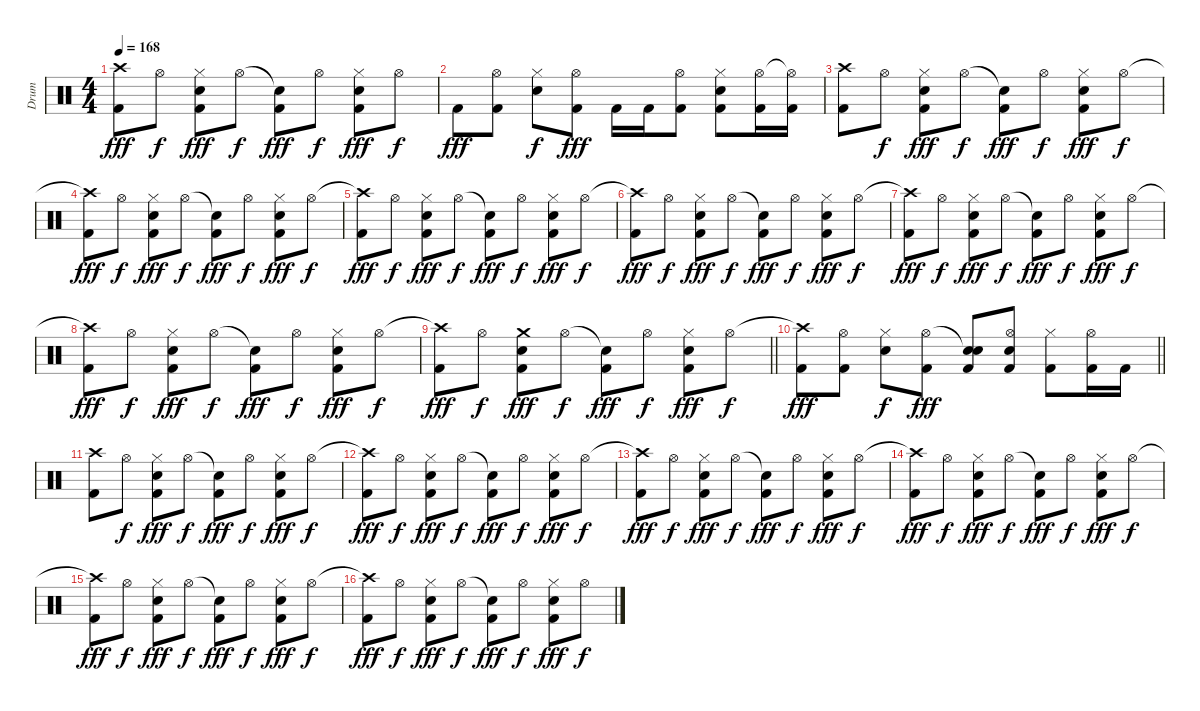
\track ("Drum" "Drum") {instrument percussion}
\staff {score}
\articulation defaults
\ts (4 4)
\tempo 168
\clef neutral
\ks c
("Crash high (hit)"{t} "Kick (hit) 2").8{dy fff} "Hi-Hat (open)".8{dy f} ("Hi-Hat (closed)" "Snare (hit) 2" "Kick (hit) 2").8{dy fff} "Hi-Hat (open)".8{dy f} ("Snare (hit)"{t} "Kick (hit) 2").8{dy fff} "Hi-Hat (open)".8{dy f} ("Hi-Hat (closed)" "Snare (hit) 2" "Kick (hit) 2").8{dy fff} "Hi-Hat (open)".8{dy f} |
"Kick (hit) 2".8{dy fff} ("Hi-Hat (open)" "Kick (hit) 2").8 ("Hi-Hat (closed)" "Snare (hit) 2").8{dy f} ("Hi-Hat (open)" "Kick (hit) 2").8{dy fff} "Kick (hit) 2".16 "Kick (hit) 2".16 ("Hi-Hat (open)" "Kick (hit) 2").8 ("Hi-Hat (closed)" "Snare (hit) 2" "Kick (hit) 2").8 ("Hi-Hat (open)" "Kick (hit) 2").16 ("Hi-Hat (open)"{t} "Kick (hit) 2").16 |
("Crash high (hit)" "Kick (hit) 2").8 "Hi-Hat (open)".8{dy f} ("Hi-Hat (closed)" "Snare (hit) 2" "Kick (hit) 2").8{dy fff} "Hi-Hat (open)".8{dy f} ("Snare (hit)"{t} "Kick (hit) 2").8{dy fff} "Hi-Hat (open)".8{dy f} ("Hi-Hat (closed)" "Snare (hit) 2" "Kick (hit) 2").8{dy fff} "Hi-Hat (open)".8{dy f} |
("Crash high (hit)"{t} "Kick (hit) 2").8{dy fff} "Hi-Hat (open)".8{dy f} ("Hi-Hat (closed)" "Snare (hit) 2" "Kick (hit) 2").8{dy fff} "Hi-Hat (open)".8{dy f} ("Snare (hit)"{t} "Kick (hit) 2").8{dy fff} "Hi-Hat (open)".8{dy f} ("Hi-Hat (closed)" "Snare (hit) 2" "Kick (hit) 2").8{dy fff} "Hi-Hat (open)".8{dy f} |
("Crash high (hit)"{t} "Kick (hit) 2").8{dy fff} "Hi-Hat (open)".8{dy f} ("Hi-Hat (closed)" "Snare (hit) 2" "Kick (hit) 2").8{dy fff} "Hi-Hat (open)".8{dy f} ("Snare (hit)"{t} "Kick (hit) 2").8{dy fff} "Hi-Hat (open)".8{dy f} ("Hi-Hat (closed)" "Snare (hit) 2" "Kick (hit) 2").8{dy fff} "Hi-Hat (open)".8{dy f} |
("Crash high (hit)"{t} "Kick (hit) 2").8{dy fff} "Hi-Hat (open)".8{dy f} ("Hi-Hat (closed)" "Snare (hit) 2" "Kick (hit) 2").8{dy fff} "Hi-Hat (open)".8{dy f} ("Snare (hit)"{t} "Kick (hit) 2").8{dy fff} "Hi-Hat (open)".8{dy f} ("Hi-Hat (closed)" "Snare (hit) 2" "Kick (hit) 2").8{dy fff} "Hi-Hat (open)".8{dy f} |
("Crash high (hit)"{t} "Kick (hit) 2").8{dy fff} "Hi-Hat (open)".8{dy f} ("Hi-Hat (closed)" "Snare (hit) 2" "Kick (hit) 2").8{dy fff} "Hi-Hat (open)".8{dy f} ("Snare (hit)"{t} "Kick (hit) 2").8{dy fff} "Hi-Hat (open)".8{dy f} ("Hi-Hat (closed)" "Snare (hit) 2" "Kick (hit) 2").8{dy fff} "Hi-Hat (open)".8{dy f} |
("Crash high (hit)"{t} "Kick (hit) 2").8{dy fff} "Hi-Hat (open)".8{dy f} ("Hi-Hat (closed)" "Snare (hit) 2" "Kick (hit) 2").8{dy fff} "Hi-Hat (open)".8{dy f} ("Snare (hit)"{t} "Kick (hit) 2").8{dy fff} "Hi-Hat (open)".8{dy f} ("Hi-Hat (closed)" "Snare (hit) 2" "Kick (hit) 2").8{dy fff} "Hi-Hat (open)".8{dy f} |
\barLineRight lightlight
("Crash high (hit)"{t} "Kick (hit) 2").8{dy fff} "Hi-Hat (open)".8{dy f} ("Crash medium (hit)" "Snare (hit) 2" "Kick (hit) 2").8{dy fff} "Hi-Hat (open)".8{dy f} ("Snare (hit)"{t} "Kick (hit) 2").8{dy fff} "Hi-Hat (open)".8{dy f} ("Hi-Hat (closed)" "Snare (hit) 2" "Kick (hit) 2").8{dy fff} "Hi-Hat (open)".8{dy f} |
\barLineRight lightlight
("Crash high (hit)"{t} "Kick (hit) 2").8{dy fff} ("Hi-Hat (open)" "Kick (hit) 2").8 ("Hi-Hat (closed)" "Snare (hit) 2").8{dy f} ("Hi-Hat (open)" "Kick (hit) 2").8{dy fff} ("Snare (hit)"{t} "Snare (hit) 2" "Kick (hit) 2").8 ("Hi-Hat (open)" "Snare (hit) 2" "Kick (hit) 2").8 ("Hi-Hat (closed)" "Kick (hit) 2").8 ("Hi-Hat (open)" "Kick (hit) 2").16 "Kick (hit) 2".16 |
("Crash high (hit)" "Kick (hit) 2").8 "Hi-Hat (open)".8{dy f} ("Hi-Hat (closed)" "Snare (hit) 2" "Kick (hit) 2").8{dy fff} "Hi-Hat (open)".8{dy f} ("Snare (hit)"{t} "Kick (hit) 2").8{dy fff} "Hi-Hat (open)".8{dy f} ("Hi-Hat (closed)" "Snare (hit) 2" "Kick (hit) 2").8{dy fff} "Hi-Hat (open)".8{dy f} |
("Crash high (hit)"{t} "Kick (hit) 2").8{dy fff} "Hi-Hat (open)".8{dy f} ("Hi-Hat (closed)" "Snare (hit) 2" "Kick (hit) 2").8{dy fff} "Hi-Hat (open)".8{dy f} ("Snare (hit)"{t} "Kick (hit) 2").8{dy fff} "Hi-Hat (open)".8{dy f} ("Hi-Hat (closed)" "Snare (hit) 2" "Kick (hit) 2").8{dy fff} "Hi-Hat (open)".8{dy f} |
("Crash high (hit)"{t} "Kick (hit) 2").8{dy fff} "Hi-Hat (open)".8{dy f} ("Hi-Hat (closed)" "Snare (hit) 2" "Kick (hit) 2").8{dy fff} "Hi-Hat (open)".8{dy f} ("Snare (hit)"{t} "Kick (hit) 2").8{dy fff} "Hi-Hat (open)".8{dy f} ("Hi-Hat (closed)" "Snare (hit) 2" "Kick (hit) 2").8{dy fff} "Hi-Hat (open)".8{dy f} |
("Crash high (hit)"{t} "Kick (hit) 2").8{dy fff} "Hi-Hat (open)".8{dy f} ("Hi-Hat (closed)" "Snare (hit) 2" "Kick (hit) 2").8{dy fff} "Hi-Hat (open)".8{dy f} ("Snare (hit)"{t} "Kick (hit) 2").8{dy fff} "Hi-Hat (open)".8{dy f} ("Hi-Hat (closed)" "Snare (hit) 2" "Kick (hit) 2").8{dy fff} "Hi-Hat (open)".8{dy f} |
("Crash high (hit)"{t} "Kick (hit) 2").8{dy fff} "Hi-Hat (open)".8{dy f} ("Hi-Hat (closed)" "Snare (hit) 2" "Kick (hit) 2").8{dy fff} "Hi-Hat (open)".8{dy f} ("Snare (hit)"{t} "Kick (hit) 2").8{dy fff} "Hi-Hat (open)".8{dy f} ("Hi-Hat (closed)" "Snare (hit) 2" "Kick (hit) 2").8{dy fff} "Hi-Hat (open)".8{dy f} |
("Crash high (hit)"{t} "Kick (hit) 2").8{dy fff} "Hi-Hat (open)".8{dy f} ("Hi-Hat (closed)" "Snare (hit) 2" "Kick (hit) 2").8{dy fff} "Hi-Hat (open)".8{dy f} ("Snare (hit)"{t} "Kick (hit) 2").8{dy fff} "Hi-Hat (open)".8{dy f} ("Hi-Hat (closed)" "Snare (hit) 2" "Kick (hit) 2").8{dy fff} "Hi-Hat (open)".8{dy f}
